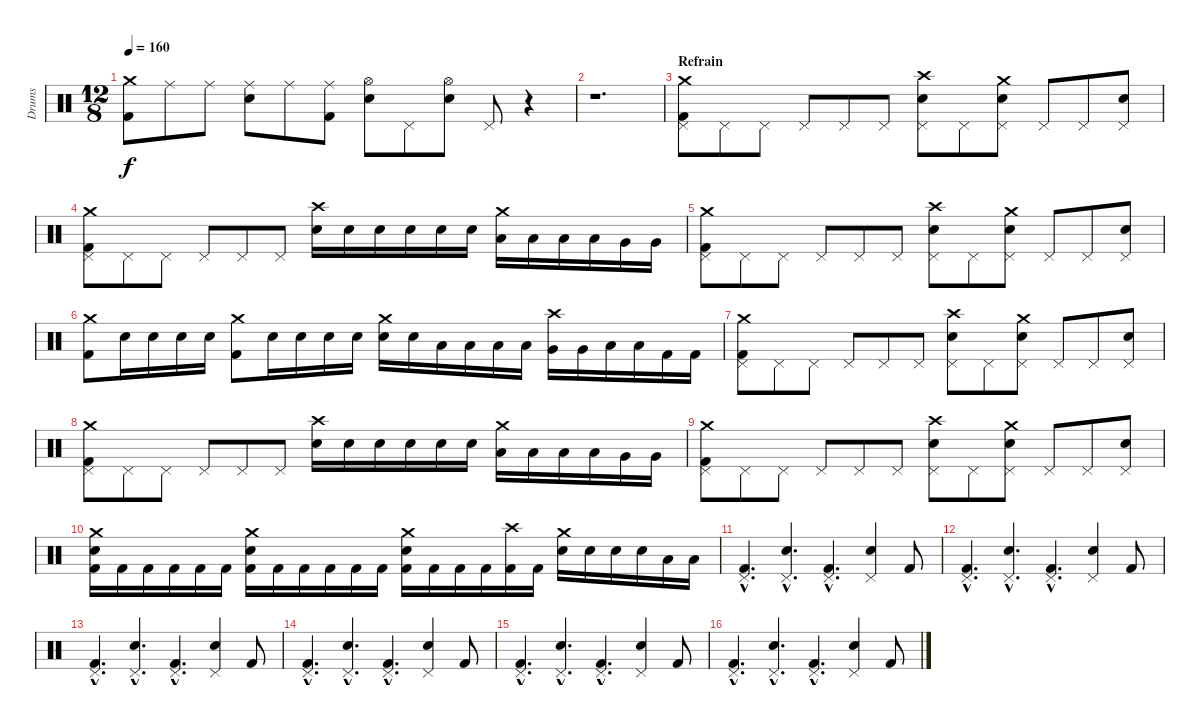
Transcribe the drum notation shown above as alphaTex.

\track ("Drums" "Drums") {instrument percussion}
\staff {score}
\articulation defaults
\ts (12 8)
\tempo 160
\clef neutral
\ks c
("Crash medium (hit)" "Kick (hit) 2").8{dy f} "Ride (middle)".8 "Ride (middle)".8 ("Ride (middle)" "Electric Snare (hit)").8 "Ride (middle)".8 ("Ride (middle)" "Kick (hit) 2").8 ("Hi-Hat (open)" "Electric Snare (hit)").8 "Pedal Hi-Hat (hit)".8 ("Hi-Hat (open)" "Electric Snare (hit)").8 "Pedal Hi-Hat (hit)".8 r.4 |
r.1{d} |
\section ("" "Refrain")
("Crash medium (hit)" "Pedal Hi-Hat (hit)" "Kick (hit) 2").8 "Pedal Hi-Hat (hit)".8 "Pedal Hi-Hat (hit)".8 "Pedal Hi-Hat (hit)".8 "Pedal Hi-Hat (hit)".8 "Pedal Hi-Hat (hit)".8 ("Crash high (hit)" "Pedal Hi-Hat (hit)" "Electric Snare (hit)").8 "Pedal Hi-Hat (hit)".8 ("Crash medium (hit)" "Pedal Hi-Hat (hit)" "Electric Snare (hit)").8 "Pedal Hi-Hat (hit)".8 "Pedal Hi-Hat (hit)".8 ("Pedal Hi-Hat (hit)" "Electric Snare (hit)").8 |
("Crash medium (hit)" "Pedal Hi-Hat (hit)" "Kick (hit) 2").8 "Pedal Hi-Hat (hit)".8 "Pedal Hi-Hat (hit)".8 "Pedal Hi-Hat (hit)".8 "Pedal Hi-Hat (hit)".8 "Pedal Hi-Hat (hit)".8 ("Crash high (hit)" "Electric Snare (hit)").16 "Electric Snare (hit)".16 "Electric Snare (hit)".16 "Electric Snare (hit)".16 "Electric Snare (hit)".16 "Electric Snare (hit)".16 ("Crash medium (hit)" "Low Tom (hit)").16 "Low Tom (hit)".16 "Low Tom (hit)".16 "Low Tom (hit)".16 "Very Low Tom (hit)".16 "Very Low Tom (hit)".16 |
("Crash medium (hit)" "Pedal Hi-Hat (hit)" "Kick (hit) 2").8 "Pedal Hi-Hat (hit)".8 "Pedal Hi-Hat (hit)".8 "Pedal Hi-Hat (hit)".8 "Pedal Hi-Hat (hit)".8 "Pedal Hi-Hat (hit)".8 ("Crash high (hit)" "Pedal Hi-Hat (hit)" "Electric Snare (hit)").8 "Pedal Hi-Hat (hit)".8 ("Crash medium (hit)" "Pedal Hi-Hat (hit)" "Electric Snare (hit)").8 "Pedal Hi-Hat (hit)".8 "Pedal Hi-Hat (hit)".8 ("Pedal Hi-Hat (hit)" "Electric Snare (hit)").8 |
("Crash medium (hit)" "Kick (hit) 2").8 "Electric Snare (hit)".16 "Electric Snare (hit)".16 "Electric Snare (hit)".16 "Electric Snare (hit)".16 ("Crash medium (hit)" "Kick (hit) 2").8 "Electric Snare (hit)".16 "Electric Snare (hit)".16 "Electric Snare (hit)".16 "Electric Snare (hit)".16 ("Crash medium (hit)" "Electric Snare (hit)").16 "Electric Snare (hit)".16 "Low Tom (hit)".16 "Low Tom (hit)".16 "Low Tom (hit)".16 "Low Tom (hit)".16 ("Crash high (hit)" "Very Low Tom (hit)").16 "Very Low Tom (hit)".16 "Low Floor Tom (hit)".16 "Low Floor Tom (hit)".16 "Kick (hit) 2".16 "Kick (hit) 2".16 |
("Crash medium (hit)" "Pedal Hi-Hat (hit)" "Kick (hit) 2").8 "Pedal Hi-Hat (hit)".8 "Pedal Hi-Hat (hit)".8 "Pedal Hi-Hat (hit)".8 "Pedal Hi-Hat (hit)".8 "Pedal Hi-Hat (hit)".8 ("Crash high (hit)" "Pedal Hi-Hat (hit)" "Electric Snare (hit)").8 "Pedal Hi-Hat (hit)".8 ("Crash medium (hit)" "Pedal Hi-Hat (hit)" "Electric Snare (hit)").8 "Pedal Hi-Hat (hit)".8 "Pedal Hi-Hat (hit)".8 ("Pedal Hi-Hat (hit)" "Electric Snare (hit)").8 |
("Crash medium (hit)" "Pedal Hi-Hat (hit)" "Kick (hit) 2").8 "Pedal Hi-Hat (hit)".8 "Pedal Hi-Hat (hit)".8 "Pedal Hi-Hat (hit)".8 "Pedal Hi-Hat (hit)".8 "Pedal Hi-Hat (hit)".8 ("Crash high (hit)" "Electric Snare (hit)").16 "Electric Snare (hit)".16 "Electric Snare (hit)".16 "Electric Snare (hit)".16 "Electric Snare (hit)".16 "Electric Snare (hit)".16 ("Crash medium (hit)" "Low Tom (hit)").16 "Low Tom (hit)".16 "Low Tom (hit)".16 "Low Tom (hit)".16 "Very Low Tom (hit)".16 "Very Low Tom (hit)".16 |
("Crash medium (hit)" "Pedal Hi-Hat (hit)" "Kick (hit) 2").8 "Pedal Hi-Hat (hit)".8 "Pedal Hi-Hat (hit)".8 "Pedal Hi-Hat (hit)".8 "Pedal Hi-Hat (hit)".8 "Pedal Hi-Hat (hit)".8 ("Crash high (hit)" "Pedal Hi-Hat (hit)" "Electric Snare (hit)").8 "Pedal Hi-Hat (hit)".8 ("Crash medium (hit)" "Pedal Hi-Hat (hit)" "Electric Snare (hit)").8 "Pedal Hi-Hat (hit)".8 "Pedal Hi-Hat (hit)".8 ("Pedal Hi-Hat (hit)" "Electric Snare (hit)").8 |
("Crash medium (hit)" "Electric Snare (hit)" "Kick (hit) 2").16 "Kick (hit) 2".16 "Kick (hit) 2".16 "Kick (hit) 2".16 "Kick (hit) 2".16 "Kick (hit) 2".16 ("Crash medium (hit)" "Electric Snare (hit)" "Kick (hit) 2").16 "Kick (hit) 2".16 "Kick (hit) 2".16 "Kick (hit) 2".16 "Kick (hit) 2".16 "Kick (hit) 2".16 ("Crash medium (hit)" "Electric Snare (hit)" "Kick (hit) 2").16 "Kick (hit) 2".16 "Kick (hit) 2".16 "Kick (hit) 2".16 ("Crash high (hit)" "Kick (hit) 2").16 "Kick (hit) 2".16 ("Crash medium (hit)" "Electric Snare (hit)").16 "Electric Snare (hit)".16 "Electric Snare (hit)".16 "Electric Snare (hit)".16 "Low Tom (hit)".16 "Low Tom (hit)".16 |
("Pedal Hi-Hat (hit)"{hac} "Kick (hit) 2"{hac}).4{d} ("Pedal Hi-Hat (hit)"{hac} "Electric Snare (hit)"{hac}).4{d} ("Pedal Hi-Hat (hit)"{hac} "Kick (hit) 2"{hac}).4{d} ("Pedal Hi-Hat (hit)" "Electric Snare (hit)").4 "Kick (hit) 2".8 |
("Pedal Hi-Hat (hit)"{hac} "Kick (hit) 2"{hac}).4{d} ("Pedal Hi-Hat (hit)"{hac} "Electric Snare (hit)"{hac}).4{d} ("Pedal Hi-Hat (hit)"{hac} "Kick (hit) 2"{hac}).4{d} ("Pedal Hi-Hat (hit)" "Electric Snare (hit)").4 "Kick (hit) 2".8 |
("Pedal Hi-Hat (hit)"{hac} "Kick (hit) 2"{hac}).4{d} ("Pedal Hi-Hat (hit)"{hac} "Electric Snare (hit)"{hac}).4{d} ("Pedal Hi-Hat (hit)"{hac} "Kick (hit) 2"{hac}).4{d} ("Pedal Hi-Hat (hit)" "Electric Snare (hit)").4 "Kick (hit) 2".8 |
("Pedal Hi-Hat (hit)"{hac} "Kick (hit) 2"{hac}).4{d} ("Pedal Hi-Hat (hit)"{hac} "Electric Snare (hit)"{hac}).4{d} ("Pedal Hi-Hat (hit)"{hac} "Kick (hit) 2"{hac}).4{d} ("Pedal Hi-Hat (hit)" "Electric Snare (hit)").4 "Kick (hit) 2".8 |
("Pedal Hi-Hat (hit)"{hac} "Kick (hit) 2"{hac}).4{d} ("Pedal Hi-Hat (hit)"{hac} "Electric Snare (hit)"{hac}).4{d} ("Pedal Hi-Hat (hit)"{hac} "Kick (hit) 2"{hac}).4{d} ("Pedal Hi-Hat (hit)" "Electric Snare (hit)").4 "Kick (hit) 2".8 |
("Pedal Hi-Hat (hit)"{hac} "Kick (hit) 2"{hac}).4{d} ("Pedal Hi-Hat (hit)"{hac} "Electric Snare (hit)"{hac}).4{d} ("Pedal Hi-Hat (hit)"{hac} "Kick (hit) 2"{hac}).4{d} ("Pedal Hi-Hat (hit)" "Electric Snare (hit)").4 "Kick (hit) 2".8
